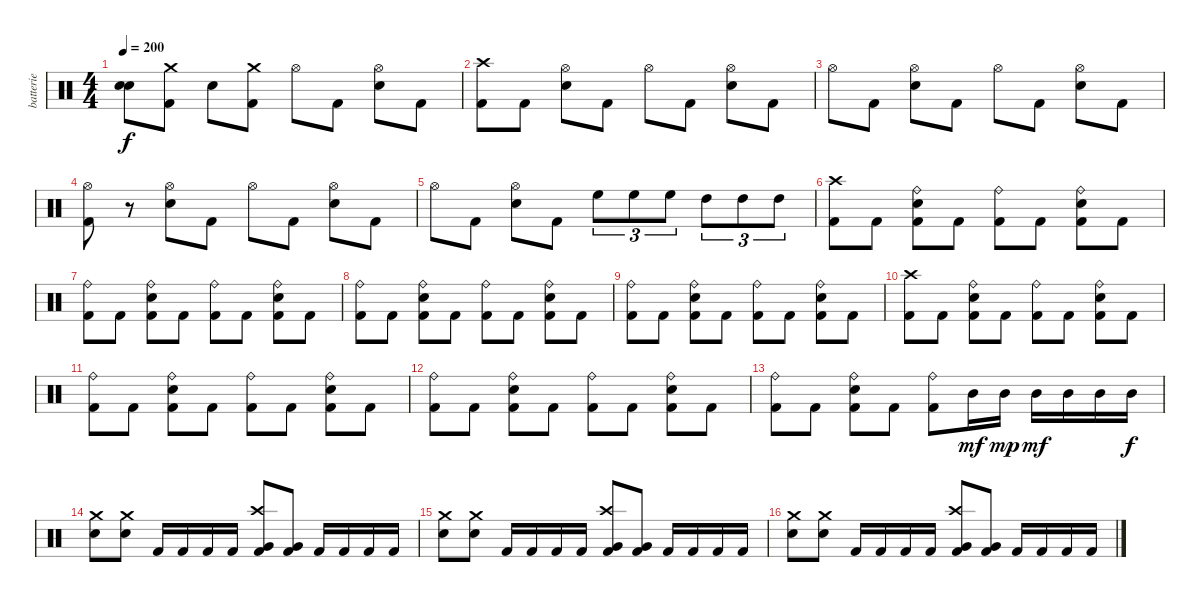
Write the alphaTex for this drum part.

\track ("batterie" "batterie") {instrument percussion}
\staff {score}
\articulation defaults
\ts (4 4)
\tempo 200
\clef neutral
\ks c
("Snare (hit)"{t} "Snare (hit)"{t}).8{dy f} ("Kick (hit) 2" "Crash medium (hit)").8 "Electric Snare (hit)".8 ("Kick (hit) 2" "Crash medium (hit)").8 "Hi-Hat (open)".8 "Kick (hit) 2".8 ("Electric Snare (hit)" "Hi-Hat (open)").8 "Kick (hit) 2".8 |
("Kick (hit) 2" "Crash high (hit)").8 "Kick (hit) 2".8 ("Electric Snare (hit)" "Hi-Hat (open)").8 "Kick (hit) 2".8 "Hi-Hat (open)".8 "Kick (hit) 2".8 ("Electric Snare (hit)" "Hi-Hat (open)").8 "Kick (hit) 2".8 |
"Hi-Hat (open)".8 "Kick (hit) 2".8 ("Electric Snare (hit)" "Hi-Hat (open)").8 "Kick (hit) 2".8 "Hi-Hat (open)".8 "Kick (hit) 2".8 ("Electric Snare (hit)" "Hi-Hat (open)").8 "Kick (hit) 2".8 |
("Kick (hit) 2" "Hi-Hat (open)").8 r.8 ("Electric Snare (hit)" "Hi-Hat (open)").8 "Kick (hit) 2".8 "Hi-Hat (open)".8 "Kick (hit) 2".8 ("Electric Snare (hit)" "Hi-Hat (open)").8 "Kick (hit) 2".8 |
"Hi-Hat (open)".8 "Kick (hit) 2".8 ("Electric Snare (hit)" "Hi-Hat (open)").8 "Kick (hit) 2".8 "High Floor Tom (hit)".8{tu (3 2)} "High Floor Tom (hit)".8{tu (3 2)} "High Floor Tom (hit)".8{tu (3 2)} "High Tom (hit)".8{tu (3 2)} "High Tom (hit)".8{tu (3 2)} "High Tom (hit)".8{tu (3 2)} |
("Kick (hit) 2" "Crash high (hit)").8 "Kick (hit) 2".8 ("Kick (hit) 2" "Electric Snare (hit)" "Ride (bell)").8 "Kick (hit) 2".8 ("Kick (hit) 2" "Ride (bell)").8 "Kick (hit) 2".8 ("Kick (hit) 2" "Electric Snare (hit)" "Ride (bell)").8 "Kick (hit) 2".8 |
("Kick (hit) 2" "Ride (bell)").8 "Kick (hit) 2".8 ("Kick (hit) 2" "Electric Snare (hit)" "Ride (bell)").8 "Kick (hit) 2".8 ("Kick (hit) 2" "Ride (bell)").8 "Kick (hit) 2".8 ("Kick (hit) 2" "Electric Snare (hit)" "Ride (bell)").8 "Kick (hit) 2".8 |
("Kick (hit) 2" "Ride (bell)").8 "Kick (hit) 2".8 ("Kick (hit) 2" "Electric Snare (hit)" "Ride (bell)").8 "Kick (hit) 2".8 ("Kick (hit) 2" "Ride (bell)").8 "Kick (hit) 2".8 ("Kick (hit) 2" "Electric Snare (hit)" "Ride (bell)").8 "Kick (hit) 2".8 |
("Kick (hit) 2" "Ride (bell)").8 "Kick (hit) 2".8 ("Kick (hit) 2" "Electric Snare (hit)" "Ride (bell)").8 "Kick (hit) 2".8 ("Kick (hit) 2" "Ride (bell)").8 "Kick (hit) 2".8 ("Kick (hit) 2" "Electric Snare (hit)" "Ride (bell)").8 "Kick (hit) 2".8 |
("Kick (hit) 2" "Crash high (hit)").8 "Kick (hit) 2".8 ("Kick (hit) 2" "Electric Snare (hit)" "Ride (bell)").8 "Kick (hit) 2".8 ("Kick (hit) 2" "Ride (bell)").8 "Kick (hit) 2".8 ("Kick (hit) 2" "Electric Snare (hit)" "Ride (bell)").8 "Kick (hit) 2".8 |
("Kick (hit) 2" "Ride (bell)").8 "Kick (hit) 2".8 ("Kick (hit) 2" "Electric Snare (hit)" "Ride (bell)").8 "Kick (hit) 2".8 ("Kick (hit) 2" "Ride (bell)").8 "Kick (hit) 2".8 ("Kick (hit) 2" "Electric Snare (hit)" "Ride (bell)").8 "Kick (hit) 2".8 |
("Kick (hit) 2" "Ride (bell)").8 "Kick (hit) 2".8 ("Kick (hit) 2" "Electric Snare (hit)" "Ride (bell)").8 "Kick (hit) 2".8 ("Kick (hit) 2" "Ride (bell)").8 "Kick (hit) 2".8 ("Kick (hit) 2" "Electric Snare (hit)" "Ride (bell)").8 "Kick (hit) 2".8 |
("Kick (hit) 2" "Ride (bell)").8 "Kick (hit) 2".8 ("Kick (hit) 2" "Electric Snare (hit)" "Ride (bell)").8 "Kick (hit) 2".8 ("Kick (hit) 2" "Ride (bell)").8 "Mid Tom (hit)".16{dy mf} "Mid Tom (hit)".16{dy mp} "Mid Tom (hit)".16{dy mf} "Mid Tom (hit)".16 "Mid Tom (hit)".16 "Mid Tom (hit)".16{dy f} |
("Electric Snare (hit)" "Crash medium (hit)").8 ("Electric Snare (hit)" "Crash medium (hit)").8 "Kick (hit) 2".16 "Kick (hit) 2".16 "Kick (hit) 2".16 "Kick (hit) 2".16 ("Kick (hit) 2" "Very Low Tom (hit)" "Crash high (hit)").8 ("Kick (hit) 2" "Very Low Tom (hit)").8 "Kick (hit) 2".16 "Kick (hit) 2".16 "Kick (hit) 2".16 "Kick (hit) 2".16 |
("Electric Snare (hit)" "Crash medium (hit)").8 ("Electric Snare (hit)" "Crash medium (hit)").8 "Kick (hit) 2".16 "Kick (hit) 2".16 "Kick (hit) 2".16 "Kick (hit) 2".16 ("Kick (hit) 2" "Very Low Tom (hit)" "Crash high (hit)").8 ("Kick (hit) 2" "Very Low Tom (hit)").8 "Kick (hit) 2".16 "Kick (hit) 2".16 "Kick (hit) 2".16 "Kick (hit) 2".16 |
("Electric Snare (hit)" "Crash medium (hit)").8 ("Electric Snare (hit)" "Crash medium (hit)").8 "Kick (hit) 2".16 "Kick (hit) 2".16 "Kick (hit) 2".16 "Kick (hit) 2".16 ("Kick (hit) 2" "Very Low Tom (hit)" "Crash high (hit)").8 ("Kick (hit) 2" "Very Low Tom (hit)").8 "Kick (hit) 2".16 "Kick (hit) 2".16 "Kick (hit) 2".16 "Kick (hit) 2".16
